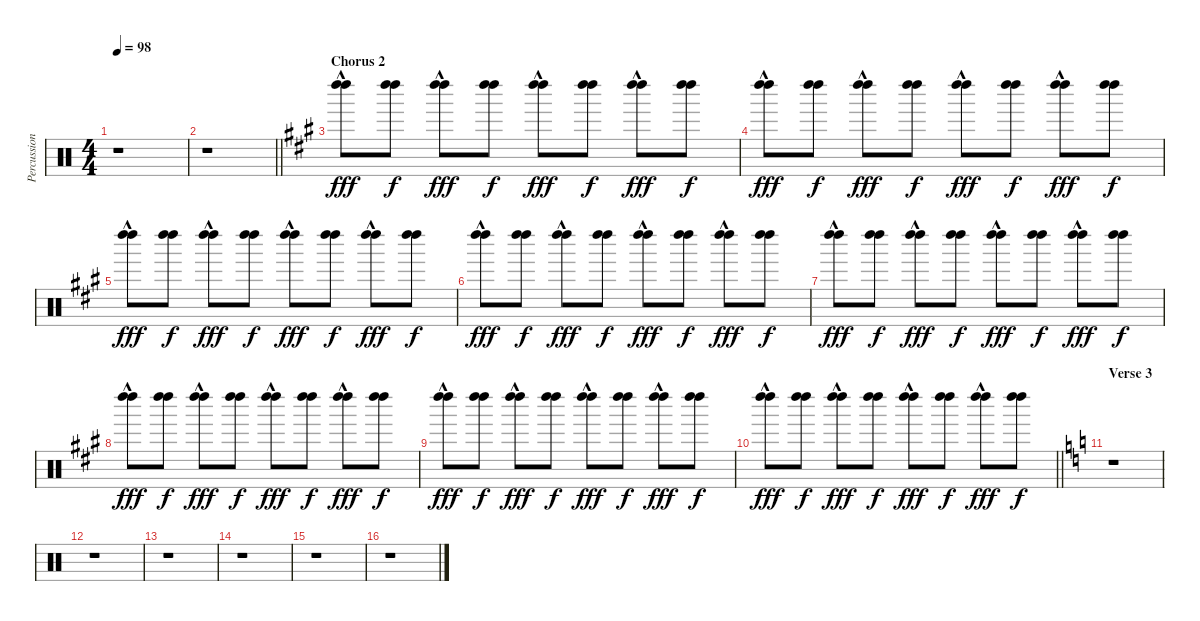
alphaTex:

\track ("Percussion -- Steven Tyler" "Percussion") {instrument percussion}
\staff {score}
\articulation defaults
\ts (4 4)
\tempo 98
\clef neutral
\ks c
r.1{dy f} |
\barLineRight lightlight
r.1 |
\section ("" "Chorus 2")
\ks a
("Left Maraca (hit)"{hac} "Left Maraca (hit)"{hac}).8{dy fff} ("Left Maraca (hit)" "Left Maraca (hit)").8{dy f} ("Left Maraca (hit)"{hac} "Left Maraca (hit)"{hac}).8{dy fff} ("Left Maraca (hit)" "Left Maraca (hit)").8{dy f} ("Left Maraca (hit)"{hac} "Left Maraca (hit)"{hac}).8{dy fff} ("Left Maraca (hit)" "Left Maraca (hit)").8{dy f} ("Left Maraca (hit)"{hac} "Left Maraca (hit)"{hac}).8{dy fff} ("Left Maraca (hit)" "Left Maraca (hit)").8{dy f} |
("Left Maraca (hit)"{hac} "Left Maraca (hit)"{hac}).8{dy fff} ("Left Maraca (hit)" "Left Maraca (hit)").8{dy f} ("Left Maraca (hit)"{hac} "Left Maraca (hit)"{hac}).8{dy fff} ("Left Maraca (hit)" "Left Maraca (hit)").8{dy f} ("Left Maraca (hit)"{hac} "Left Maraca (hit)"{hac}).8{dy fff} ("Left Maraca (hit)" "Left Maraca (hit)").8{dy f} ("Left Maraca (hit)"{hac} "Left Maraca (hit)"{hac}).8{dy fff} ("Left Maraca (hit)" "Left Maraca (hit)").8{dy f} |
("Left Maraca (hit)"{hac} "Left Maraca (hit)"{hac}).8{dy fff} ("Left Maraca (hit)" "Left Maraca (hit)").8{dy f} ("Left Maraca (hit)"{hac} "Left Maraca (hit)"{hac}).8{dy fff} ("Left Maraca (hit)" "Left Maraca (hit)").8{dy f} ("Left Maraca (hit)"{hac} "Left Maraca (hit)"{hac}).8{dy fff} ("Left Maraca (hit)" "Left Maraca (hit)").8{dy f} ("Left Maraca (hit)"{hac} "Left Maraca (hit)"{hac}).8{dy fff} ("Left Maraca (hit)" "Left Maraca (hit)").8{dy f} |
("Left Maraca (hit)"{hac} "Left Maraca (hit)"{hac}).8{dy fff} ("Left Maraca (hit)" "Left Maraca (hit)").8{dy f} ("Left Maraca (hit)"{hac} "Left Maraca (hit)"{hac}).8{dy fff} ("Left Maraca (hit)" "Left Maraca (hit)").8{dy f} ("Left Maraca (hit)"{hac} "Left Maraca (hit)"{hac}).8{dy fff} ("Left Maraca (hit)" "Left Maraca (hit)").8{dy f} ("Left Maraca (hit)"{hac} "Left Maraca (hit)"{hac}).8{dy fff} ("Left Maraca (hit)" "Left Maraca (hit)").8{dy f} |
("Left Maraca (hit)"{hac} "Left Maraca (hit)"{hac}).8{dy fff} ("Left Maraca (hit)" "Left Maraca (hit)").8{dy f} ("Left Maraca (hit)"{hac} "Left Maraca (hit)"{hac}).8{dy fff} ("Left Maraca (hit)" "Left Maraca (hit)").8{dy f} ("Left Maraca (hit)"{hac} "Left Maraca (hit)"{hac}).8{dy fff} ("Left Maraca (hit)" "Left Maraca (hit)").8{dy f} ("Left Maraca (hit)"{hac} "Left Maraca (hit)"{hac}).8{dy fff} ("Left Maraca (hit)" "Left Maraca (hit)").8{dy f} |
("Left Maraca (hit)"{hac} "Left Maraca (hit)"{hac}).8{dy fff} ("Left Maraca (hit)" "Left Maraca (hit)").8{dy f} ("Left Maraca (hit)"{hac} "Left Maraca (hit)"{hac}).8{dy fff} ("Left Maraca (hit)" "Left Maraca (hit)").8{dy f} ("Left Maraca (hit)"{hac} "Left Maraca (hit)"{hac}).8{dy fff} ("Left Maraca (hit)" "Left Maraca (hit)").8{dy f} ("Left Maraca (hit)"{hac} "Left Maraca (hit)"{hac}).8{dy fff} ("Left Maraca (hit)" "Left Maraca (hit)").8{dy f} |
("Left Maraca (hit)"{hac} "Left Maraca (hit)"{hac}).8{dy fff} ("Left Maraca (hit)" "Left Maraca (hit)").8{dy f} ("Left Maraca (hit)"{hac} "Left Maraca (hit)"{hac}).8{dy fff} ("Left Maraca (hit)" "Left Maraca (hit)").8{dy f} ("Left Maraca (hit)"{hac} "Left Maraca (hit)"{hac}).8{dy fff} ("Left Maraca (hit)" "Left Maraca (hit)").8{dy f} ("Left Maraca (hit)"{hac} "Left Maraca (hit)"{hac}).8{dy fff} ("Left Maraca (hit)" "Left Maraca (hit)").8{dy f} |
\barLineRight lightlight
("Left Maraca (hit)"{hac} "Left Maraca (hit)"{hac}).8{dy fff} ("Left Maraca (hit)" "Left Maraca (hit)").8{dy f} ("Left Maraca (hit)"{hac} "Left Maraca (hit)"{hac}).8{dy fff} ("Left Maraca (hit)" "Left Maraca (hit)").8{dy f} ("Left Maraca (hit)"{hac} "Left Maraca (hit)"{hac}).8{dy fff} ("Left Maraca (hit)" "Left Maraca (hit)").8{dy f} ("Left Maraca (hit)"{hac} "Left Maraca (hit)"{hac}).8{dy fff} ("Left Maraca (hit)" "Left Maraca (hit)").8{dy f} |
\section ("" "Verse 3")
\ks c
r.1 |
r.1 |
r.1 |
r.1 |
r.1 |
r.1
